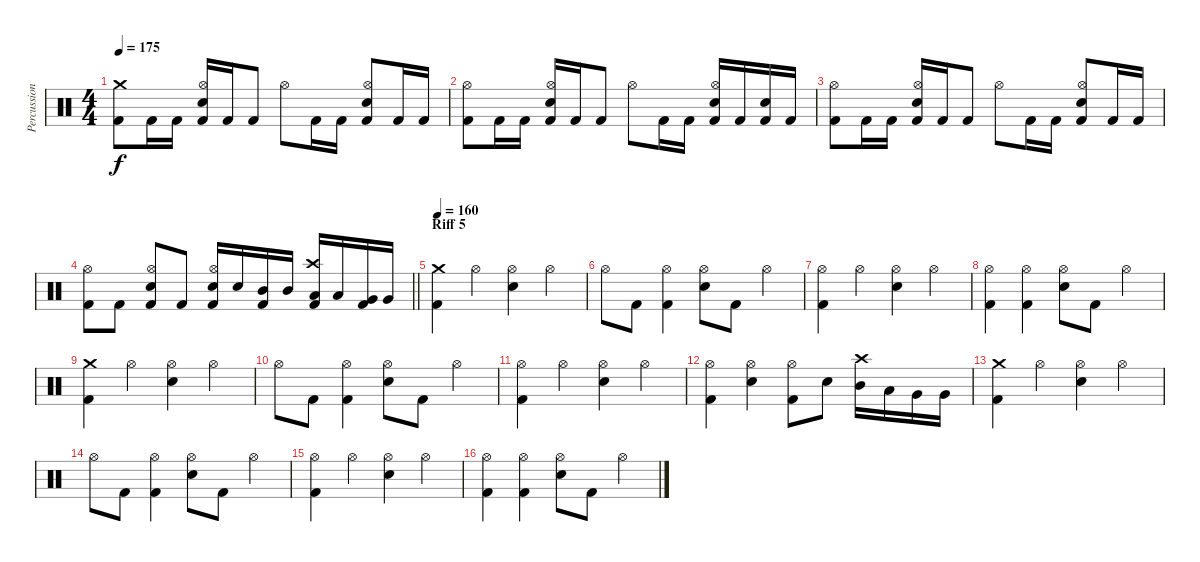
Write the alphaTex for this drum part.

\track ("Percussion" "Percussion") {instrument percussion}
\staff {score}
\articulation defaults
\ts (4 4)
\tempo 175
\clef neutral
\ks c
("Crash medium (hit)" "Kick (hit) 2").8{dy f} "Kick (hit) 2".16 "Kick (hit) 2".16 ("Kick (hit) 2" "Hi-Hat (open)" "Snare (hit) 2").16 "Kick (hit) 2".16 "Kick (hit) 2".8 "Hi-Hat (open)".8 "Kick (hit) 2".16 "Kick (hit) 2".16 ("Kick (hit) 2" "Hi-Hat (open)" "Snare (hit) 2").8 "Kick (hit) 2".16 "Kick (hit) 2".16 |
("Hi-Hat (open)" "Kick (hit) 2").8 "Kick (hit) 2".16 "Kick (hit) 2".16 ("Kick (hit) 2" "Hi-Hat (open)" "Snare (hit) 2").16 "Kick (hit) 2".16 "Kick (hit) 2".8 "Hi-Hat (open)".8 "Kick (hit) 2".16 "Kick (hit) 2".16 ("Kick (hit) 2" "Hi-Hat (open)" "Snare (hit) 2").16 "Kick (hit) 2".16 ("Kick (hit) 2" "Snare (hit) 2").16 "Kick (hit) 2".16 |
("Hi-Hat (open)" "Kick (hit) 2").8 "Kick (hit) 2".16 "Kick (hit) 2".16 ("Kick (hit) 2" "Hi-Hat (open)" "Snare (hit) 2").16 "Kick (hit) 2".16 "Kick (hit) 2".8 "Hi-Hat (open)".8 "Kick (hit) 2".16 "Kick (hit) 2".16 ("Kick (hit) 2" "Hi-Hat (open)" "Snare (hit) 2").8 "Kick (hit) 2".16 "Kick (hit) 2".16 |
\barLineRight lightlight
("Hi-Hat (open)" "Kick (hit) 2").8 "Kick (hit) 2".8 ("Kick (hit) 2" "Hi-Hat (open)" "Snare (hit) 2").8 "Kick (hit) 2".8 ("Kick (hit) 2" "Hi-Hat (open)" "Snare (hit) 2").16 "Snare (hit) 2".16 ("Kick (hit) 2" "Mid Tom (hit)").16 "Mid Tom (hit)".16 ("Kick (hit) 2" "Crash high (hit)" "Low Tom (hit)").16 "Low Tom (hit)".16 ("Kick (hit) 2" "Very Low Tom (hit)").16 "Very Low Tom (hit)".16 |
\section ("" "Riff 5")
\tempo 160
("Crash medium (hit)" "Kick (hit) 2").4 "Hi-Hat (open)".4 ("Hi-Hat (open)" "Snare (hit) 2").4 "Hi-Hat (open)".4 |
"Hi-Hat (open)".8 "Kick (hit) 2".8 ("Hi-Hat (open)" "Kick (hit) 2").4 ("Hi-Hat (open)" "Snare (hit) 2").8 "Kick (hit) 2".8 "Hi-Hat (open)".4 |
("Hi-Hat (open)" "Kick (hit) 2").4 "Hi-Hat (open)".4 ("Hi-Hat (open)" "Snare (hit) 2").4 "Hi-Hat (open)".4 |
("Hi-Hat (open)" "Kick (hit) 2").4 ("Hi-Hat (open)" "Kick (hit) 2").4 ("Hi-Hat (open)" "Snare (hit) 2").8 "Kick (hit) 2".8 "Hi-Hat (open)".4 |
("Crash medium (hit)" "Kick (hit) 2").4 "Hi-Hat (open)".4 ("Hi-Hat (open)" "Snare (hit) 2").4 "Hi-Hat (open)".4 |
"Hi-Hat (open)".8 "Kick (hit) 2".8 ("Hi-Hat (open)" "Kick (hit) 2").4 ("Hi-Hat (open)" "Snare (hit) 2").8 "Kick (hit) 2".8 "Hi-Hat (open)".4 |
("Hi-Hat (open)" "Kick (hit) 2").4 "Hi-Hat (open)".4 ("Hi-Hat (open)" "Snare (hit) 2").4 "Hi-Hat (open)".4 |
("Hi-Hat (open)" "Kick (hit) 2").4 ("Hi-Hat (open)" "Snare (hit) 2").4 ("Hi-Hat (open)" "Kick (hit) 2").8 "Snare (hit) 2".8 ("Crash high (hit)" "Mid Tom (hit)").16 "Low Tom (hit)".16 "Very Low Tom (hit)".16 "Very Low Tom (hit)".16 |
("Crash medium (hit)" "Kick (hit) 2").4 "Hi-Hat (open)".4 ("Hi-Hat (open)" "Snare (hit) 2").4 "Hi-Hat (open)".4 |
"Hi-Hat (open)".8 "Kick (hit) 2".8 ("Hi-Hat (open)" "Kick (hit) 2").4 ("Hi-Hat (open)" "Snare (hit) 2").8 "Kick (hit) 2".8 "Hi-Hat (open)".4 |
("Hi-Hat (open)" "Kick (hit) 2").4 "Hi-Hat (open)".4 ("Hi-Hat (open)" "Snare (hit) 2").4 "Hi-Hat (open)".4 |
("Hi-Hat (open)" "Kick (hit) 2").4 ("Hi-Hat (open)" "Kick (hit) 2").4 ("Hi-Hat (open)" "Snare (hit) 2").8 "Kick (hit) 2".8 "Hi-Hat (open)".4
